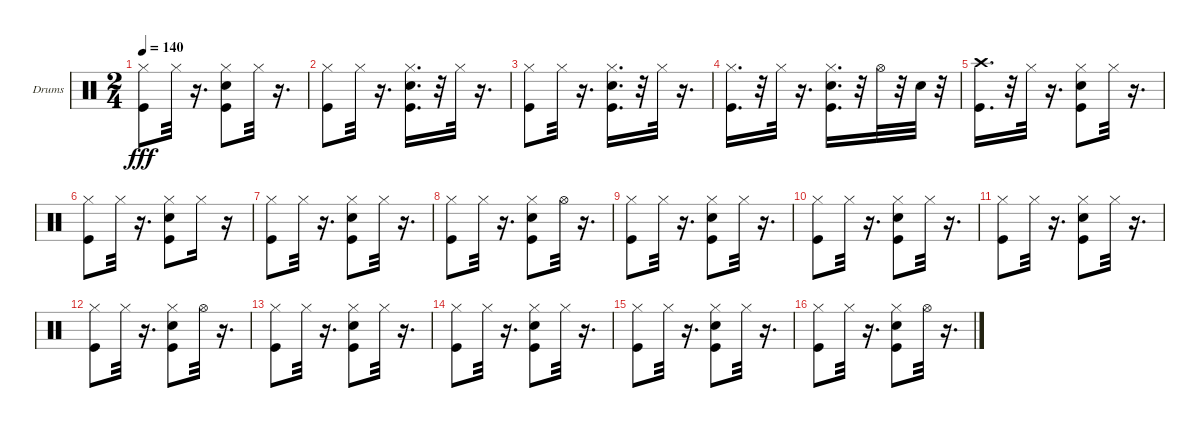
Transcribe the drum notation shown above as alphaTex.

\bracketExtendMode groupsimilarinstruments
\firstSystemTrackNameOrientation horizontal
\otherSystemsTrackNameOrientation horizontal
\track ("Ударные" "Drums") {instrument percussion}
\staff {score}
\articulation defaults
\ts (2 4)
\tempo 140
\clef neutral
\ks c
("Kick (hit)" "Hi-Hat (closed)").8{dy fff} "Hi-Hat (closed)".32 r.16{d} ("Snare (hit) 2" "Kick (hit)" "Hi-Hat (closed)").8 "Hi-Hat (closed)".32 r.16{d} |
("Kick (hit)" "Hi-Hat (closed)").8 "Hi-Hat (closed)".32 r.16{d} ("Snare (hit) 2" "Kick (hit)" "Hi-Hat (closed)").16{d} r.32 "Hi-Hat (closed)".32 r.16{d} |
("Kick (hit)" "Hi-Hat (closed)").8 "Hi-Hat (closed)".32 r.16{d} ("Hi-Hat (closed)" "Snare (hit) 2" "Kick (hit)").16{d} r.32 "Hi-Hat (closed)".32 r.16{d} |
("Kick (hit)" "Hi-Hat (closed)").16{d} r.32 "Hi-Hat (closed)".32 r.16{d} ("Snare (hit) 2" "Kick (hit)" "Hi-Hat (closed)").16{d} r.32 "Hi-Hat (open)".32 r.32 "Snare (hit) 2".32 r.32 |
("Kick (hit)" "Crash high (hit)").16{d} r.32 "Hi-Hat (closed)".32 r.16{d} ("Kick (hit)" "Snare (hit) 2" "Hi-Hat (closed)").8 "Hi-Hat (closed)".32 r.16{d} |
("Kick (hit)" "Hi-Hat (closed)").8 "Hi-Hat (closed)".32 r.16{d} ("Snare (hit) 2" "Kick (hit)" "Hi-Hat (closed)").8 "Hi-Hat (closed)".16 r.16 |
("Kick (hit)" "Hi-Hat (closed)").8 "Hi-Hat (closed)".32 r.16{d} ("Snare (hit) 2" "Kick (hit)" "Hi-Hat (closed)").8 "Hi-Hat (closed)".32 r.16{d} |
("Kick (hit)" "Hi-Hat (closed)").8 "Hi-Hat (closed)".32 r.16{d} ("Kick (hit)" "Snare (hit) 2" "Hi-Hat (closed)").8 "Hi-Hat (open)".32 r.16{d} |
("Kick (hit)" "Hi-Hat (closed)").8 "Hi-Hat (closed)".32 r.16{d} ("Snare (hit) 2" "Kick (hit)" "Hi-Hat (closed)").8 "Hi-Hat (closed)".32 r.16{d} |
("Kick (hit)" "Hi-Hat (closed)").8 "Hi-Hat (closed)".32 r.16{d} ("Hi-Hat (closed)" "Snare (hit) 2" "Kick (hit)").8 "Hi-Hat (closed)".32 r.16{d} |
("Kick (hit)" "Hi-Hat (closed)").8 "Hi-Hat (closed)".32 r.16{d} ("Snare (hit) 2" "Kick (hit)" "Hi-Hat (closed)").8 "Hi-Hat (closed)".32 r.16{d} |
("Kick (hit)" "Hi-Hat (closed)").8 "Hi-Hat (closed)".32 r.16{d} ("Hi-Hat (closed)" "Kick (hit)" "Snare (hit) 2").8 "Hi-Hat (open)".32 r.16{d} |
("Kick (hit)" "Hi-Hat (closed)").8 "Hi-Hat (closed)".32 r.16{d} ("Kick (hit)" "Hi-Hat (closed)" "Snare (hit) 2").8 "Hi-Hat (closed)".32 r.16{d} |
("Kick (hit)" "Hi-Hat (closed)").8 "Hi-Hat (closed)".32 r.16{d} ("Snare (hit) 2" "Kick (hit)" "Hi-Hat (closed)").8 "Hi-Hat (closed)".32 r.16{d} |
("Kick (hit)" "Hi-Hat (closed)").8 "Hi-Hat (closed)".32 r.16{d} ("Snare (hit) 2" "Kick (hit)" "Hi-Hat (closed)").8 "Hi-Hat (closed)".32 r.16{d} |
("Kick (hit)" "Hi-Hat (closed)").8 "Hi-Hat (closed)".32 r.16{d} ("Snare (hit) 2" "Kick (hit)" "Hi-Hat (closed)").8 "Hi-Hat (open)".32 r.16{d}
